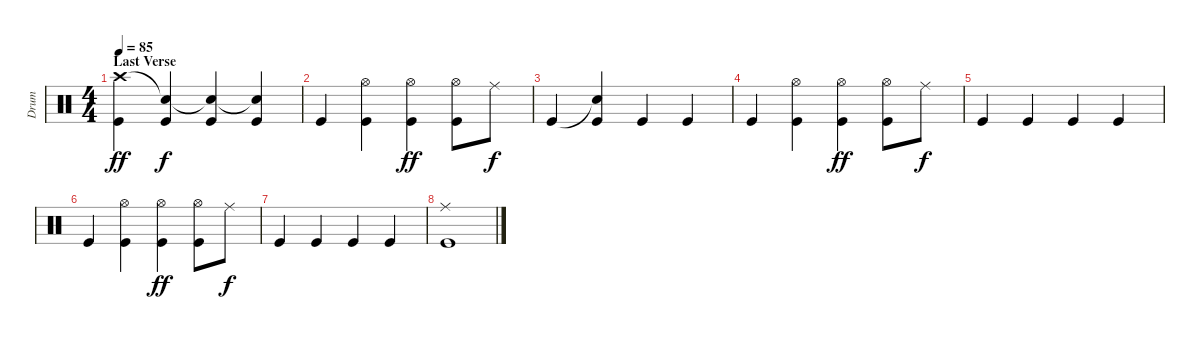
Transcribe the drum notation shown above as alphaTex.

\track ("Drum" "Drum") {instrument percussion}
\staff {score}
\articulation defaults
\ts (4 4)
\section ("" "Last Verse")
\tempo 85
\clef neutral
\ks c
("Crash high (hit)" "Kick (hit)").4{dy ff} ("Snare (hit)"{t} "Kick (hit)").4{dy f} ("Snare (hit)"{t} "Kick (hit)").4 ("Snare (hit)"{t} "Kick (hit)").4 |
"Kick (hit)".4 ("Hi-Hat (open)" "Kick (hit)").4 ("Hi-Hat (open)" "Kick (hit)").4{dy ff} ("Hi-Hat (open)" "Kick (hit)").8 "Ride (middle)".8{dy f} |
"Kick (hit)".4 ("Snare (hit)"{t} "Kick (hit)").4 "Kick (hit)".4 "Kick (hit)".4 |
"Kick (hit)".4 ("Hi-Hat (open)" "Kick (hit)").4 ("Hi-Hat (open)" "Kick (hit)").4{dy ff} ("Hi-Hat (open)" "Kick (hit)").8 "Ride (middle)".8{dy f} |
"Kick (hit)".4 "Kick (hit)".4 "Kick (hit)".4 "Kick (hit)".4 |
"Kick (hit)".4 ("Hi-Hat (open)" "Kick (hit)").4 ("Hi-Hat (open)" "Kick (hit)").4{dy ff} ("Hi-Hat (open)" "Kick (hit)").8 "Ride (middle)".8{dy f} |
"Kick (hit)".4 "Kick (hit)".4 "Kick (hit)".4 "Kick (hit)".4 |
("Ride (middle)" "Kick (hit)").1
